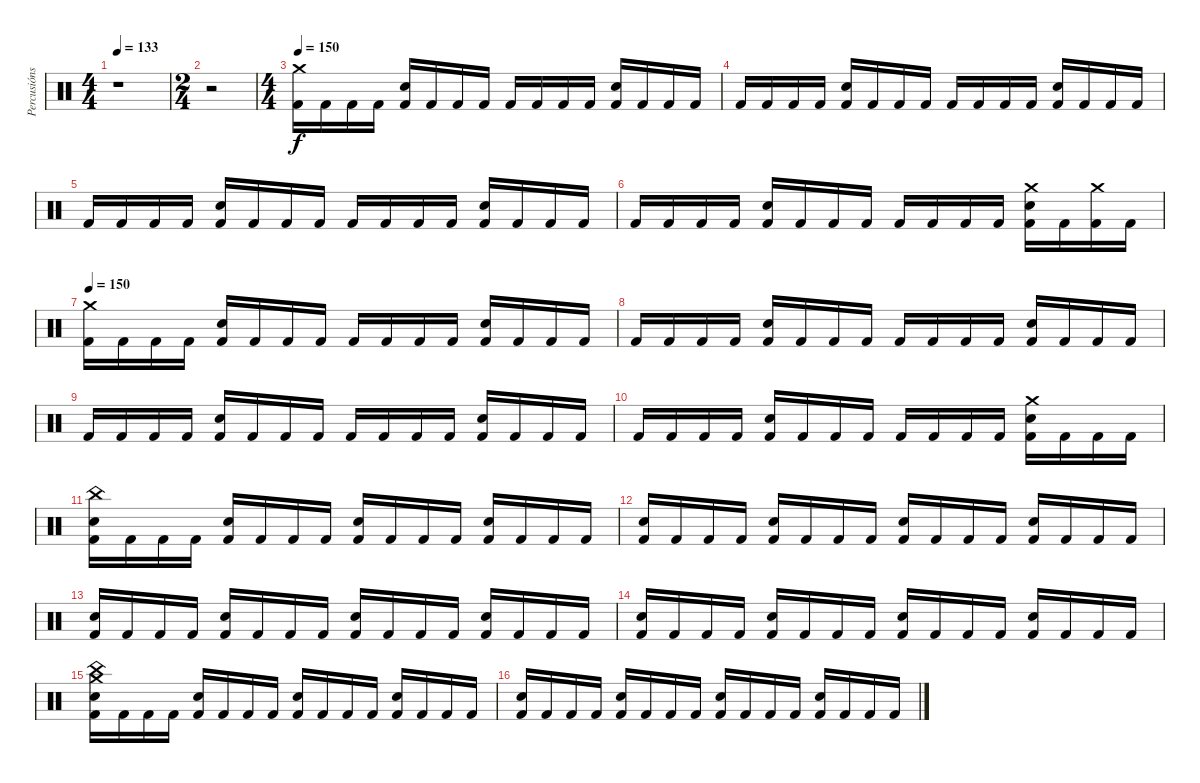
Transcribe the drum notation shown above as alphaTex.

\track ("Percusións" "Percusións") {instrument percussion}
\staff {score}
\articulation defaults
\ts (4 4)
\tempo 133
\clef neutral
\ks c
r.1{dy f} |
\ts (2 4)
r.2 |
\ts (4 4)
\tempo 150
("Crash medium (hit)" "Kick (hit) 2").16 "Kick (hit) 2".16 "Kick (hit) 2".16 "Kick (hit) 2".16 ("Snare (hit) 2" "Kick (hit) 2").16 "Kick (hit) 2".16 "Kick (hit) 2".16 "Kick (hit) 2".16 "Kick (hit) 2".16 "Kick (hit) 2".16 "Kick (hit) 2".16 "Kick (hit) 2".16 ("Snare (hit) 2" "Kick (hit) 2").16 "Kick (hit) 2".16 "Kick (hit) 2".16 "Kick (hit) 2".16 |
"Kick (hit) 2".16 "Kick (hit) 2".16 "Kick (hit) 2".16 "Kick (hit) 2".16 ("Snare (hit) 2" "Kick (hit) 2").16 "Kick (hit) 2".16 "Kick (hit) 2".16 "Kick (hit) 2".16 "Kick (hit) 2".16 "Kick (hit) 2".16 "Kick (hit) 2".16 "Kick (hit) 2".16 ("Snare (hit) 2" "Kick (hit) 2").16 "Kick (hit) 2".16 "Kick (hit) 2".16 "Kick (hit) 2".16 |
"Kick (hit) 2".16 "Kick (hit) 2".16 "Kick (hit) 2".16 "Kick (hit) 2".16 ("Snare (hit) 2" "Kick (hit) 2").16 "Kick (hit) 2".16 "Kick (hit) 2".16 "Kick (hit) 2".16 "Kick (hit) 2".16 "Kick (hit) 2".16 "Kick (hit) 2".16 "Kick (hit) 2".16 ("Snare (hit) 2" "Kick (hit) 2").16 "Kick (hit) 2".16 "Kick (hit) 2".16 "Kick (hit) 2".16 |
"Kick (hit) 2".16 "Kick (hit) 2".16 "Kick (hit) 2".16 "Kick (hit) 2".16 ("Snare (hit) 2" "Kick (hit) 2").16 "Kick (hit) 2".16 "Kick (hit) 2".16 "Kick (hit) 2".16 "Kick (hit) 2".16 "Kick (hit) 2".16 "Kick (hit) 2".16 "Kick (hit) 2".16 ("Crash medium (hit)" "Snare (hit) 2" "Kick (hit) 2").16 "Kick (hit) 2".16 ("Crash medium (hit)" "Kick (hit) 2").16 "Kick (hit) 2".16 |
\tempo 150
("Crash medium (hit)" "Kick (hit) 2").16 "Kick (hit) 2".16 "Kick (hit) 2".16 "Kick (hit) 2".16 ("Snare (hit) 2" "Kick (hit) 2").16 "Kick (hit) 2".16 "Kick (hit) 2".16 "Kick (hit) 2".16 "Kick (hit) 2".16 "Kick (hit) 2".16 "Kick (hit) 2".16 "Kick (hit) 2".16 ("Snare (hit) 2" "Kick (hit) 2").16 "Kick (hit) 2".16 "Kick (hit) 2".16 "Kick (hit) 2".16 |
"Kick (hit) 2".16 "Kick (hit) 2".16 "Kick (hit) 2".16 "Kick (hit) 2".16 ("Snare (hit) 2" "Kick (hit) 2").16 "Kick (hit) 2".16 "Kick (hit) 2".16 "Kick (hit) 2".16 "Kick (hit) 2".16 "Kick (hit) 2".16 "Kick (hit) 2".16 "Kick (hit) 2".16 ("Snare (hit) 2" "Kick (hit) 2").16 "Kick (hit) 2".16 "Kick (hit) 2".16 "Kick (hit) 2".16 |
"Kick (hit) 2".16 "Kick (hit) 2".16 "Kick (hit) 2".16 "Kick (hit) 2".16 ("Snare (hit) 2" "Kick (hit) 2").16 "Kick (hit) 2".16 "Kick (hit) 2".16 "Kick (hit) 2".16 "Kick (hit) 2".16 "Kick (hit) 2".16 "Kick (hit) 2".16 "Kick (hit) 2".16 ("Snare (hit) 2" "Kick (hit) 2").16 "Kick (hit) 2".16 "Kick (hit) 2".16 "Kick (hit) 2".16 |
"Kick (hit) 2".16 "Kick (hit) 2".16 "Kick (hit) 2".16 "Kick (hit) 2".16 ("Snare (hit) 2" "Kick (hit) 2").16 "Kick (hit) 2".16 "Kick (hit) 2".16 "Kick (hit) 2".16 "Kick (hit) 2".16 "Kick (hit) 2".16 "Kick (hit) 2".16 "Kick (hit) 2".16 ("Crash medium (hit)" "Snare (hit) 2" "Kick (hit) 2").16 "Kick (hit) 2".16 "Kick (hit) 2".16 "Kick (hit) 2".16 |
("China (hit)" "Snare (hit) 2" "Kick (hit) 2").16 "Kick (hit) 2".16 "Kick (hit) 2".16 "Kick (hit) 2".16 ("Snare (hit) 2" "Kick (hit) 2").16 "Kick (hit) 2".16 "Kick (hit) 2".16 "Kick (hit) 2".16 ("Snare (hit) 2" "Kick (hit) 2").16 "Kick (hit) 2".16 "Kick (hit) 2".16 "Kick (hit) 2".16 ("Snare (hit) 2" "Kick (hit) 2").16 "Kick (hit) 2".16 "Kick (hit) 2".16 "Kick (hit) 2".16 |
("Snare (hit) 2" "Kick (hit) 2").16 "Kick (hit) 2".16 "Kick (hit) 2".16 "Kick (hit) 2".16 ("Snare (hit) 2" "Kick (hit) 2").16 "Kick (hit) 2".16 "Kick (hit) 2".16 "Kick (hit) 2".16 ("Snare (hit) 2" "Kick (hit) 2").16 "Kick (hit) 2".16 "Kick (hit) 2".16 "Kick (hit) 2".16 ("Snare (hit) 2" "Kick (hit) 2").16 "Kick (hit) 2".16 "Kick (hit) 2".16 "Kick (hit) 2".16 |
("Snare (hit) 2" "Kick (hit) 2").16 "Kick (hit) 2".16 "Kick (hit) 2".16 "Kick (hit) 2".16 ("Snare (hit) 2" "Kick (hit) 2").16 "Kick (hit) 2".16 "Kick (hit) 2".16 "Kick (hit) 2".16 ("Snare (hit) 2" "Kick (hit) 2").16 "Kick (hit) 2".16 "Kick (hit) 2".16 "Kick (hit) 2".16 ("Snare (hit) 2" "Kick (hit) 2").16 "Kick (hit) 2".16 "Kick (hit) 2".16 "Kick (hit) 2".16 |
("Snare (hit) 2" "Kick (hit) 2").16 "Kick (hit) 2".16 "Kick (hit) 2".16 "Kick (hit) 2".16 ("Snare (hit) 2" "Kick (hit) 2").16 "Kick (hit) 2".16 "Kick (hit) 2".16 "Kick (hit) 2".16 ("Snare (hit) 2" "Kick (hit) 2").16 "Kick (hit) 2".16 "Kick (hit) 2".16 "Kick (hit) 2".16 ("Snare (hit) 2" "Kick (hit) 2").16 "Kick (hit) 2".16 "Kick (hit) 2".16 "Kick (hit) 2".16 |
("Crash medium (hit)" "China (hit)" "Snare (hit) 2" "Kick (hit) 2").16 "Kick (hit) 2".16 "Kick (hit) 2".16 "Kick (hit) 2".16 ("Snare (hit) 2" "Kick (hit) 2").16 "Kick (hit) 2".16 "Kick (hit) 2".16 "Kick (hit) 2".16 ("Snare (hit) 2" "Kick (hit) 2").16 "Kick (hit) 2".16 "Kick (hit) 2".16 "Kick (hit) 2".16 ("Snare (hit) 2" "Kick (hit) 2").16 "Kick (hit) 2".16 "Kick (hit) 2".16 "Kick (hit) 2".16 |
("Snare (hit) 2" "Kick (hit) 2").16 "Kick (hit) 2".16 "Kick (hit) 2".16 "Kick (hit) 2".16 ("Snare (hit) 2" "Kick (hit) 2").16 "Kick (hit) 2".16 "Kick (hit) 2".16 "Kick (hit) 2".16 ("Snare (hit) 2" "Kick (hit) 2").16 "Kick (hit) 2".16 "Kick (hit) 2".16 "Kick (hit) 2".16 ("Snare (hit) 2" "Kick (hit) 2").16 "Kick (hit) 2".16 "Kick (hit) 2".16 "Kick (hit) 2".16
